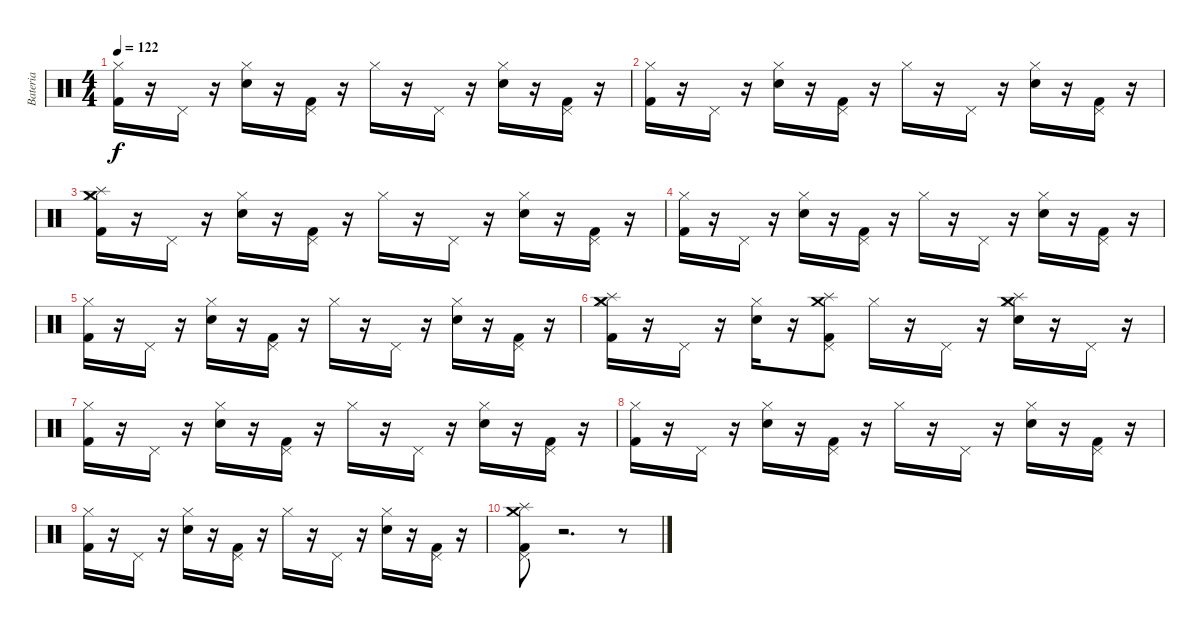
\track ("Bateria" "Bateria") {instrument percussion}
\staff {score}
\articulation defaults
\ts (4 4)
\tempo 122
\clef neutral
\ks c
("Kick (hit) 2" "Hi-Hat (closed)").16{dy f} r.16 "Pedal Hi-Hat (hit)".16 r.16 ("Hi-Hat (closed)" "Snare (hit) 2").16 r.16 ("Pedal Hi-Hat (hit)" "Kick (hit) 2").16 r.16 "Hi-Hat (closed)".16 r.16 "Pedal Hi-Hat (hit)".16 r.16 ("Snare (hit) 2" "Hi-Hat (closed)").16 r.16 ("Kick (hit) 2" "Pedal Hi-Hat (hit)").16 r.16 |
("Kick (hit) 2" "Hi-Hat (closed)").16 r.16 "Pedal Hi-Hat (hit)".16 r.16 ("Snare (hit) 2" "Hi-Hat (closed)").16 r.16 ("Kick (hit) 2" "Pedal Hi-Hat (hit)").16 r.16 "Hi-Hat (closed)".16 r.16 "Pedal Hi-Hat (hit)".16 r.16 ("Hi-Hat (closed)" "Snare (hit) 2").16 r.16 ("Kick (hit) 2" "Pedal Hi-Hat (hit)").16 r.16 |
("Kick (hit) 2" "Splash (hit)" "Crash medium (hit)" "Hi-Hat (closed)").16 r.16 "Pedal Hi-Hat (hit)".16 r.16 ("Snare (hit) 2" "Hi-Hat (closed)").16 r.16 ("Kick (hit) 2" "Pedal Hi-Hat (hit)").16 r.16 "Hi-Hat (closed)".16 r.16 "Pedal Hi-Hat (hit)".16 r.16 ("Hi-Hat (closed)" "Snare (hit) 2").16 r.16 ("Pedal Hi-Hat (hit)" "Kick (hit) 2").16 r.16 |
("Hi-Hat (closed)" "Kick (hit) 2").16 r.16 "Pedal Hi-Hat (hit)".16 r.16 ("Snare (hit) 2" "Hi-Hat (closed)").16 r.16 ("Kick (hit) 2" "Pedal Hi-Hat (hit)").16 r.16 "Hi-Hat (closed)".16 r.16 "Pedal Hi-Hat (hit)".16 r.16 ("Snare (hit) 2" "Hi-Hat (closed)").16 r.16 ("Kick (hit) 2" "Pedal Hi-Hat (hit)").16 r.16 |
("Hi-Hat (closed)" "Kick (hit) 2").16 r.16 "Pedal Hi-Hat (hit)".16 r.16 ("Hi-Hat (closed)" "Snare (hit) 2").16 r.16 ("Kick (hit) 2" "Pedal Hi-Hat (hit)").16 r.16 "Hi-Hat (closed)".16 r.16 "Pedal Hi-Hat (hit)".16 r.16 ("Snare (hit) 2" "Hi-Hat (closed)").16 r.16 ("Kick (hit) 2" "Pedal Hi-Hat (hit)").16 r.16 |
("Kick (hit) 2" "Hi-Hat (closed)" "Crash medium (hit)" "Splash (hit)").16 r.16 "Pedal Hi-Hat (hit)".16 r.16 ("Hi-Hat (closed)" "Snare (hit) 2").16 r.16 ("Splash (hit)" "Crash medium (hit)" "Pedal Hi-Hat (hit)" "Kick (hit) 2").8 "Hi-Hat (closed)".16 r.16 "Pedal Hi-Hat (hit)".16 r.16 ("Snare (hit) 2" "Hi-Hat (closed)" "Crash medium (hit)" "Splash (hit)").16 r.16 "Pedal Hi-Hat (hit)".16 r.16 |
("Hi-Hat (closed)" "Kick (hit) 2").16 r.16 "Pedal Hi-Hat (hit)".16 r.16 ("Hi-Hat (closed)" "Snare (hit) 2").16 r.16 ("Kick (hit) 2" "Pedal Hi-Hat (hit)").16 r.16 "Hi-Hat (closed)".16 r.16 "Pedal Hi-Hat (hit)".16 r.16 ("Snare (hit) 2" "Hi-Hat (closed)").16 r.16 ("Kick (hit) 2" "Pedal Hi-Hat (hit)").16 r.16 |
("Hi-Hat (closed)" "Kick (hit) 2").16 r.16 "Pedal Hi-Hat (hit)".16 r.16 ("Hi-Hat (closed)" "Snare (hit) 2").16 r.16 ("Kick (hit) 2" "Pedal Hi-Hat (hit)").16 r.16 "Hi-Hat (closed)".16 r.16 "Pedal Hi-Hat (hit)".16 r.16 ("Snare (hit) 2" "Hi-Hat (closed)").16 r.16 ("Kick (hit) 2" "Pedal Hi-Hat (hit)").16 r.16 |
("Hi-Hat (closed)" "Kick (hit) 2").16 r.16 "Pedal Hi-Hat (hit)".16 r.16 ("Hi-Hat (closed)" "Snare (hit) 2").16 r.16 ("Kick (hit) 2" "Pedal Hi-Hat (hit)").16 r.16 "Hi-Hat (closed)".16 r.16 "Pedal Hi-Hat (hit)".16 r.16 ("Snare (hit) 2" "Hi-Hat (closed)").16 r.16 ("Kick (hit) 2" "Pedal Hi-Hat (hit)").16 r.16 |
("Splash (hit)" "Crash medium (hit)" "Pedal Hi-Hat (hit)" "Kick (hit) 2").8 r.2{d} r.8
